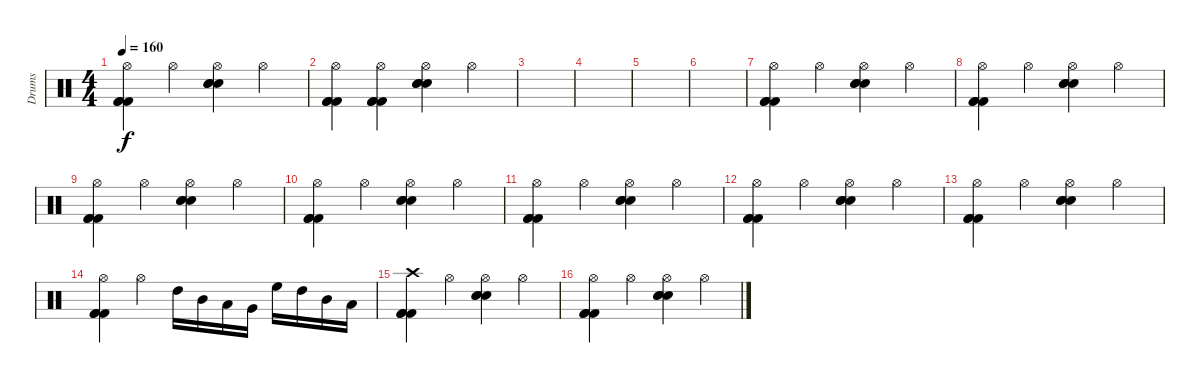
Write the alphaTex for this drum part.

\track ("Drums" "Drums") {instrument percussion}
\staff {score}
\articulation defaults
\ts (4 4)
\tempo 160
\clef neutral
\ks c
("Hi-Hat (open)" "Kick (hit) 2" "Kick (hit) 2" "Kick (hit) 2").4{dy f} "Hi-Hat (open)".4 ("Hi-Hat (open)" "Electric Snare (hit)" "Electric Snare (hit)" "Electric Snare (hit)").4 "Hi-Hat (open)".4 |
("Hi-Hat (open)" "Kick (hit) 2" "Kick (hit) 2" "Kick (hit) 2").4 ("Hi-Hat (open)" "Kick (hit) 2" "Kick (hit) 2" "Kick (hit) 2").4 ("Hi-Hat (open)" "Electric Snare (hit)" "Electric Snare (hit)" "Electric Snare (hit)").4 "Hi-Hat (open)".4 |
|
|
|
|
("Hi-Hat (open)" "Kick (hit) 2" "Kick (hit) 2" "Kick (hit) 2").4 "Hi-Hat (open)".4 ("Hi-Hat (open)" "Electric Snare (hit)" "Electric Snare (hit)" "Electric Snare (hit)").4 "Hi-Hat (open)".4 |
("Hi-Hat (open)" "Kick (hit) 2" "Kick (hit) 2" "Kick (hit) 2").4 "Hi-Hat (open)".4 ("Hi-Hat (open)" "Electric Snare (hit)" "Electric Snare (hit)" "Electric Snare (hit)").4 "Hi-Hat (open)".4 |
("Hi-Hat (open)" "Kick (hit) 2" "Kick (hit) 2" "Kick (hit) 2").4 "Hi-Hat (open)".4 ("Hi-Hat (open)" "Electric Snare (hit)" "Electric Snare (hit)" "Electric Snare (hit)").4 "Hi-Hat (open)".4 |
("Hi-Hat (open)" "Kick (hit) 2" "Kick (hit) 2" "Kick (hit) 2").4 "Hi-Hat (open)".4 ("Hi-Hat (open)" "Electric Snare (hit)" "Electric Snare (hit)" "Electric Snare (hit)").4 "Hi-Hat (open)".4 |
("Hi-Hat (open)" "Kick (hit) 2" "Kick (hit) 2" "Kick (hit) 2").4 "Hi-Hat (open)".4 ("Hi-Hat (open)" "Electric Snare (hit)" "Electric Snare (hit)" "Electric Snare (hit)").4 "Hi-Hat (open)".4 |
("Hi-Hat (open)" "Kick (hit) 2" "Kick (hit) 2" "Kick (hit) 2").4 "Hi-Hat (open)".4 ("Hi-Hat (open)" "Electric Snare (hit)" "Electric Snare (hit)" "Electric Snare (hit)").4 "Hi-Hat (open)".4 |
("Hi-Hat (open)" "Kick (hit) 2" "Kick (hit) 2" "Kick (hit) 2").4 "Hi-Hat (open)".4 ("Hi-Hat (open)" "Electric Snare (hit)" "Electric Snare (hit)" "Electric Snare (hit)").4 "Hi-Hat (open)".4 |
("Hi-Hat (open)" "Kick (hit) 2" "Kick (hit) 2" "Kick (hit) 2").4 "Hi-Hat (open)".4 "High Tom (hit)".16 "Mid Tom (hit)".16 "Low Tom (hit)".16 "Very Low Tom (hit)".16 "High Floor Tom (hit)".16 "High Tom (hit)".16 "Mid Tom (hit)".16 "Low Tom (hit)".16 |
("Crash high (hit)" "Kick (hit) 2" "Kick (hit) 2" "Kick (hit) 2").4 "Hi-Hat (open)".4 ("Hi-Hat (open)" "Electric Snare (hit)" "Electric Snare (hit)" "Electric Snare (hit)").4 "Hi-Hat (open)".4 |
("Hi-Hat (open)" "Kick (hit) 2" "Kick (hit) 2" "Kick (hit) 2").4 "Hi-Hat (open)".4 ("Hi-Hat (open)" "Electric Snare (hit)" "Electric Snare (hit)" "Electric Snare (hit)").4 "Hi-Hat (open)".4
